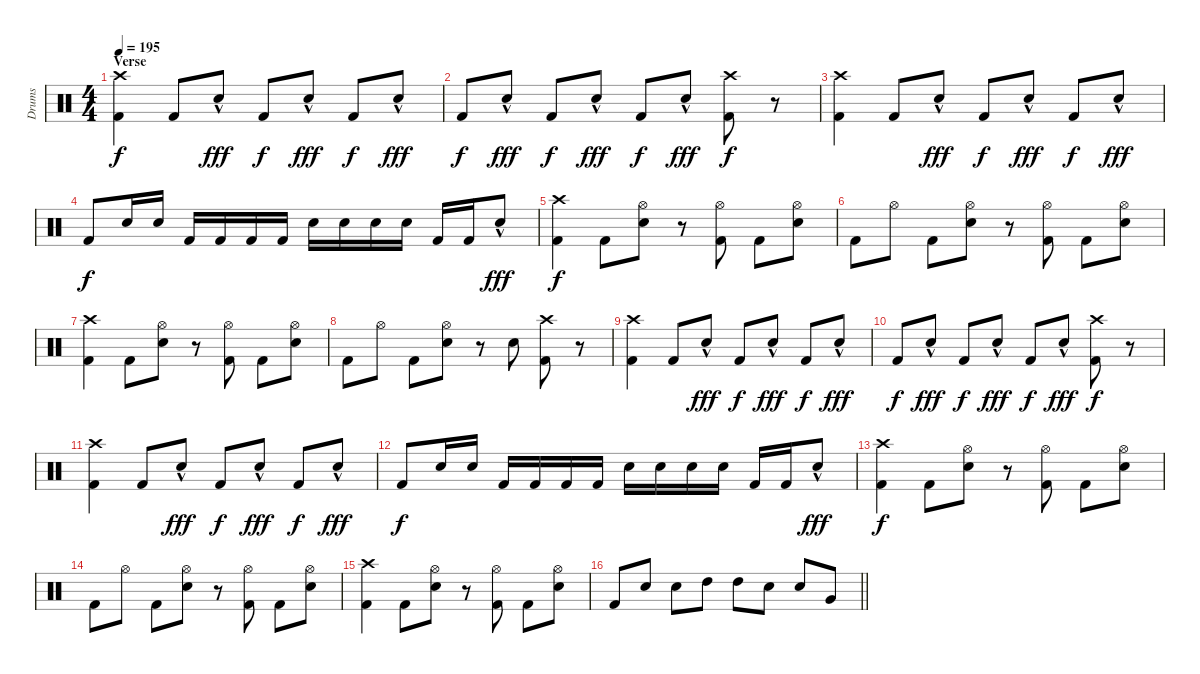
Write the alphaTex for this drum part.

\track ("Drums" "Drums") {instrument percussion}
\staff {score}
\articulation defaults
\ts (4 4)
\section ("" "Verse")
\tempo 195
\clef neutral
\ks c
("Crash high (hit)" "Kick (hit) 2").4{dy f} "Kick (hit) 2".8 "Electric Snare (hit)"{hac}.8{dy fff} "Kick (hit) 2".8{dy f} "Electric Snare (hit)"{hac}.8{dy fff} "Kick (hit) 2".8{dy f} "Electric Snare (hit)"{hac}.8{dy fff} |
"Kick (hit) 2".8{dy f} "Electric Snare (hit)"{hac}.8{dy fff} "Kick (hit) 2".8{dy f} "Electric Snare (hit)"{hac}.8{dy fff} "Kick (hit) 2".8{dy f} "Electric Snare (hit)"{hac}.8{dy fff} ("Crash high (hit)" "Kick (hit) 2").8{dy f} r.8 |
("Crash high (hit)" "Kick (hit) 2").4 "Kick (hit) 2".8 "Electric Snare (hit)"{hac}.8{dy fff} "Kick (hit) 2".8{dy f} "Electric Snare (hit)"{hac}.8{dy fff} "Kick (hit) 2".8{dy f} "Electric Snare (hit)"{hac}.8{dy fff} |
"Kick (hit) 2".8{dy f} "Electric Snare (hit)".16 "Electric Snare (hit)".16 "Kick (hit) 2".16 "Kick (hit) 2".16 "Kick (hit) 2".16 "Kick (hit) 2".16 "Electric Snare (hit)".16 "Electric Snare (hit)".16 "Electric Snare (hit)".16 "Electric Snare (hit)".16 "Kick (hit) 2".16 "Kick (hit) 2".16 "Electric Snare (hit)"{hac}.8{dy fff} |
("Crash high (hit)" "Kick (hit) 2").4{dy f} "Kick (hit) 2".8 ("Hi-Hat (open)" "Electric Snare (hit)").8 r.8 ("Hi-Hat (open)" "Kick (hit) 2").8 "Kick (hit) 2".8 ("Hi-Hat (open)" "Electric Snare (hit)").8 |
"Kick (hit) 2".8 "Hi-Hat (open)".8 "Kick (hit) 2".8 ("Hi-Hat (open)" "Electric Snare (hit)").8 r.8 ("Hi-Hat (open)" "Kick (hit) 2").8 "Kick (hit) 2".8 ("Hi-Hat (open)" "Electric Snare (hit)").8 |
("Crash high (hit)" "Kick (hit) 2").4 "Kick (hit) 2".8 ("Hi-Hat (open)" "Electric Snare (hit)").8 r.8 ("Hi-Hat (open)" "Kick (hit) 2").8 "Kick (hit) 2".8 ("Hi-Hat (open)" "Electric Snare (hit)").8 |
"Kick (hit) 2".8 "Hi-Hat (open)".8 "Kick (hit) 2".8 ("Hi-Hat (open)" "Electric Snare (hit)").8 r.8 "Electric Snare (hit)".8 ("Crash high (hit)" "Kick (hit) 2").8 r.8 |
("Crash high (hit)" "Kick (hit) 2").4 "Kick (hit) 2".8 "Electric Snare (hit)"{hac}.8{dy fff} "Kick (hit) 2".8{dy f} "Electric Snare (hit)"{hac}.8{dy fff} "Kick (hit) 2".8{dy f} "Electric Snare (hit)"{hac}.8{dy fff} |
"Kick (hit) 2".8{dy f} "Electric Snare (hit)"{hac}.8{dy fff} "Kick (hit) 2".8{dy f} "Electric Snare (hit)"{hac}.8{dy fff} "Kick (hit) 2".8{dy f} "Electric Snare (hit)"{hac}.8{dy fff} ("Crash high (hit)" "Kick (hit) 2").8{dy f} r.8 |
("Crash high (hit)" "Kick (hit) 2").4 "Kick (hit) 2".8 "Electric Snare (hit)"{hac}.8{dy fff} "Kick (hit) 2".8{dy f} "Electric Snare (hit)"{hac}.8{dy fff} "Kick (hit) 2".8{dy f} "Electric Snare (hit)"{hac}.8{dy fff} |
"Kick (hit) 2".8{dy f} "Electric Snare (hit)".16 "Electric Snare (hit)".16 "Kick (hit) 2".16 "Kick (hit) 2".16 "Kick (hit) 2".16 "Kick (hit) 2".16 "Electric Snare (hit)".16 "Electric Snare (hit)".16 "Electric Snare (hit)".16 "Electric Snare (hit)".16 "Kick (hit) 2".16 "Kick (hit) 2".16 "Electric Snare (hit)"{hac}.8{dy fff} |
("Crash high (hit)" "Kick (hit) 2").4{dy f} "Kick (hit) 2".8 ("Hi-Hat (open)" "Electric Snare (hit)").8 r.8 ("Hi-Hat (open)" "Kick (hit) 2").8 "Kick (hit) 2".8 ("Hi-Hat (open)" "Electric Snare (hit)").8 |
"Kick (hit) 2".8 "Hi-Hat (open)".8 "Kick (hit) 2".8 ("Hi-Hat (open)" "Electric Snare (hit)").8 r.8 ("Hi-Hat (open)" "Kick (hit) 2").8 "Kick (hit) 2".8 ("Hi-Hat (open)" "Electric Snare (hit)").8 |
("Crash high (hit)" "Kick (hit) 2").4 "Kick (hit) 2".8 ("Hi-Hat (open)" "Electric Snare (hit)").8 r.8 ("Hi-Hat (open)" "Kick (hit) 2").8 "Kick (hit) 2".8 ("Hi-Hat (open)" "Electric Snare (hit)").8 |
\barLineRight lightlight "Kick (hit) 2".8 "Electric Snare (hit)".8 "Electric Snare (hit)".8 "High Tom (hit)".8 "High Tom (hit)".8 "Electric Snare (hit)".8 "Electric Snare (hit)".8 "Very Low Tom (hit)".8
